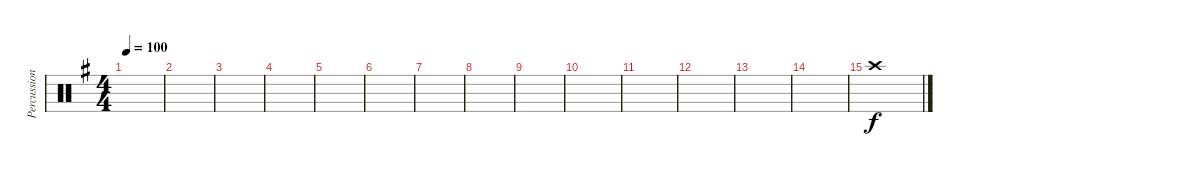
\track ("Percussion" "Percussion") {instrument percussion}
\staff {score}
\articulation defaults
\ts (4 4)
\tempo 100
\clef neutral
\ks g
|
|
|
|
|
|
|
|
|
|
|
|
|
|
"Crash high (hit)".1
